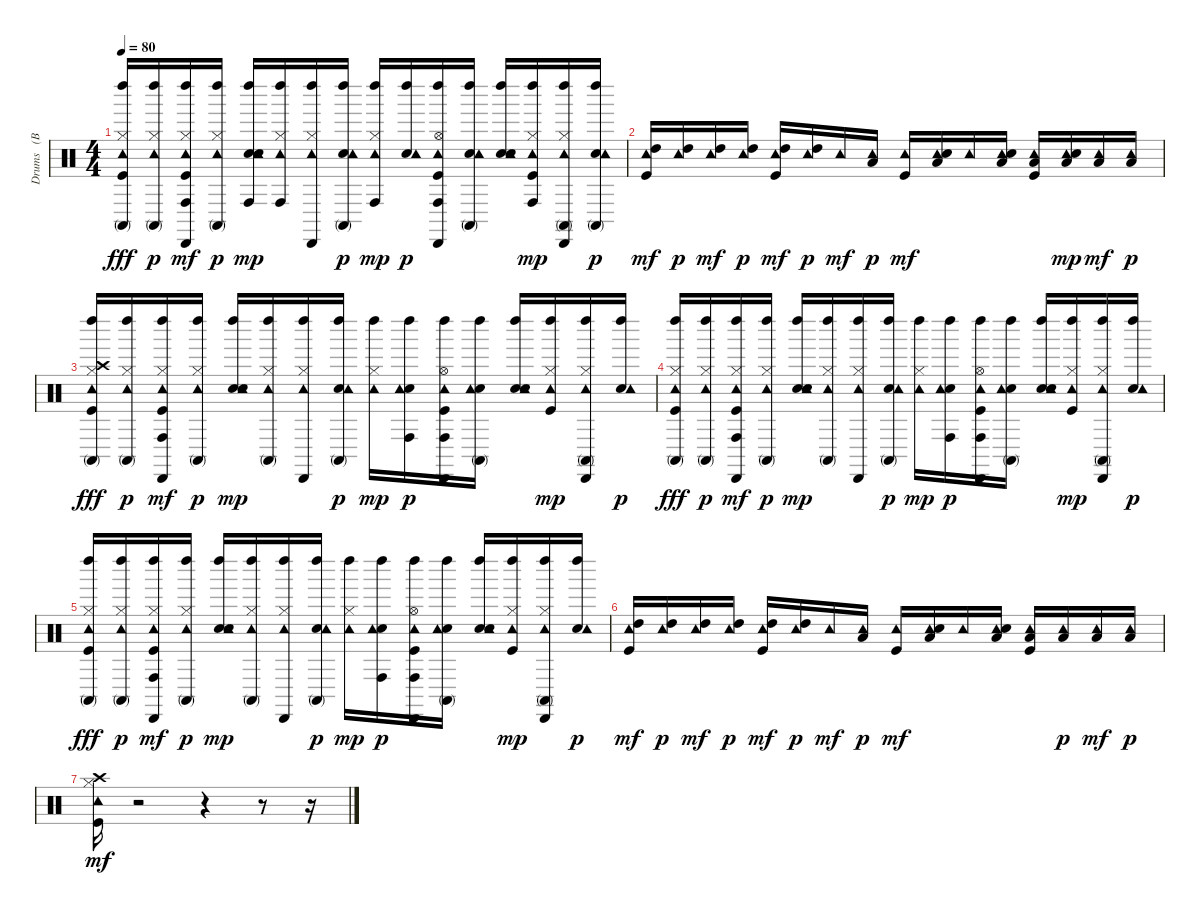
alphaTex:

\track ("Drums   (BB)" "Drums   (B") {instrument percussion}
\staff {score}
\articulation defaults
\ts (4 4)
\tempo 80
\clef neutral
\ks c
("Kick (hit)" "Hi-Hat (closed)" "Conga high (mute)" "Tambourine (hit)" "Left Maraca (hit)").16{dy fff} ("Hi-Hat (closed)" "Conga high (mute)" "Tambourine (hit)" "Left Maraca (hit)").16{dy p} ("Kick (hit)" "Hi-Hat (closed)" "Conga high (hit)" "Tambourine (hit)" "Left Maraca (hit)" "Cabasa (hit)").16{dy mf} ("Hi-Hat (closed)" "Conga high (mute)" "Tambourine (hit)" "Left Maraca (hit)").16{dy p} ("Snare (hit) 2" "Conga high (hit)" "Tambourine (hit)" "Hand Clap (hit)" "Left Maraca (hit)").16{dy mp} ("Hi-Hat (closed)" "Conga high (hit)" "Tambourine (hit)" "Left Maraca (hit)").16 ("Hi-Hat (closed)" "Tambourine (hit)" "Left Maraca (hit)" "Cabasa (hit)").16 ("Snare (hit) 2" "Conga high (mute)" "Tambourine (hit)" "Left Maraca (hit)").16{dy p} ("Hi-Hat (closed)" "Conga high (hit)" "Tambourine (hit)" "Left Maraca (hit)").16{dy mp} ("Snare (hit) 2" "Tambourine (hit)" "Left Maraca (hit)").16{dy p} ("Kick (hit)" "Hi-Hat (open)" "Conga high (hit)" "Tambourine (hit)" "Left Maraca (hit)" "Cabasa (hit)").16 ("Snare (hit) 2" "Conga high (mute)" "Tambourine (hit)" "Left Maraca (hit)").16 ("Snare (hit) 2" "Tambourine (hit)" "Hand Clap (hit)" "Left Maraca (hit)").16 ("Kick (hit)" "Hi-Hat (closed)" "Conga high (hit)" "Tambourine (hit)" "Left Maraca (hit)").16{dy mp} ("Hi-Hat (closed)" "Conga high (mute)" "Tambourine (hit)" "Left Maraca (hit)" "Cabasa (hit)").16 ("Snare (hit) 2" "Conga high (mute)" "Tambourine (hit)" "Left Maraca (hit)").16{dy p} |
("Kick (hit)" "High Tom (hit)" "Tambourine (hit)").16{dy mf} ("High Tom (hit)" "Tambourine (hit)").16{dy p} ("High Tom (hit)" "Tambourine (hit)").16{dy mf} ("High Tom (hit)" "Tambourine (hit)").16{dy p} ("Kick (hit)" "High Tom (hit)" "Tambourine (hit)").16{dy mf} ("High Tom (hit)" "Tambourine (hit)").16{dy p} "Tambourine (hit)".16{dy mf} ("Low Tom (hit)" "Tambourine (hit)").16{dy p} ("Kick (hit)" "Tambourine (hit)").16{dy mf} ("Low Tom (hit)" "Tambourine (hit)" "Hand Clap (hit)").16 "Tambourine (hit)".16 ("Low Floor Tom (hit)" "Tambourine (hit)" "Hand Clap (hit)").16 ("Kick (hit)" "Low Floor Tom (hit)" "Tambourine (hit)").16 ("Low Floor Tom (hit)" "Tambourine (hit)" "Hand Clap (hit)").16{dy mp} ("Low Floor Tom (hit)" "Tambourine (hit)").16{dy mf} ("Low Floor Tom (hit)" "Tambourine (hit)").16{dy p} |
("Kick (hit)" "Hi-Hat (closed)" "Crash high (hit)" "Conga high (mute)" "Tambourine (hit)" "Left Maraca (hit)").16{dy fff} ("Hi-Hat (closed)" "Conga high (mute)" "Tambourine (hit)" "Left Maraca (hit)").16{dy p} ("Kick (hit)" "Hi-Hat (closed)" "Conga high (hit)" "Tambourine (hit)" "Left Maraca (hit)" "Cabasa (hit)").16{dy mf} ("Hi-Hat (closed)" "Conga high (mute)" "Tambourine (hit)" "Left Maraca (hit)").16{dy p} ("Snare (hit) 2" "Tambourine (hit)" "Hand Clap (hit)" "Left Maraca (hit)").16{dy mp} ("Hi-Hat (closed)" "Conga high (mute)" "Tambourine (hit)" "Left Maraca (hit)").16 ("Hi-Hat (closed)" "Tambourine (hit)" "Left Maraca (hit)" "Cabasa (hit)").16 ("Snare (hit) 2" "Conga high (mute)" "Tambourine (hit)" "Left Maraca (hit)").16{dy p} ("Hi-Hat (closed)" "Tambourine (hit)" "Left Maraca (hit)").16{dy mp} ("Snare (hit) 2" "Conga high (hit)" "Tambourine (hit)" "Left Maraca (hit)").16{dy p} ("Kick (hit)" "Hi-Hat (open)" "Conga high (hit)" "Tambourine (hit)" "Left Maraca (hit)" "Cabasa (hit)").16 ("Snare (hit) 2" "Conga high (mute)" "Tambourine (hit)" "Left Maraca (hit)").16 ("Snare (hit) 2" "Tambourine (hit)" "Hand Clap (hit)" "Left Maraca (hit)").16 ("Kick (hit)" "Hi-Hat (closed)" "Tambourine (hit)" "Left Maraca (hit)").16{dy mp} ("Hi-Hat (closed)" "Conga high (mute)" "Tambourine (hit)" "Left Maraca (hit)" "Cabasa (hit)").16 ("Snare (hit) 2" "Tambourine (hit)" "Left Maraca (hit)").16{dy p} |
("Kick (hit)" "Hi-Hat (closed)" "Conga high (mute)" "Tambourine (hit)" "Left Maraca (hit)").16{dy fff} ("Hi-Hat (closed)" "Conga high (mute)" "Tambourine (hit)" "Left Maraca (hit)").16{dy p} ("Kick (hit)" "Hi-Hat (closed)" "Conga high (hit)" "Tambourine (hit)" "Left Maraca (hit)" "Cabasa (hit)").16{dy mf} ("Hi-Hat (closed)" "Conga high (mute)" "Tambourine (hit)" "Left Maraca (hit)").16{dy p} ("Snare (hit) 2" "Tambourine (hit)" "Hand Clap (hit)" "Left Maraca (hit)").16{dy mp} ("Hi-Hat (closed)" "Conga high (mute)" "Tambourine (hit)" "Left Maraca (hit)").16 ("Hi-Hat (closed)" "Tambourine (hit)" "Left Maraca (hit)" "Cabasa (hit)").16 ("Snare (hit) 2" "Conga high (mute)" "Tambourine (hit)" "Left Maraca (hit)").16{dy p} ("Hi-Hat (closed)" "Tambourine (hit)" "Left Maraca (hit)").16{dy mp} ("Snare (hit) 2" "Conga high (hit)" "Tambourine (hit)" "Left Maraca (hit)").16{dy p} ("Kick (hit)" "Hi-Hat (open)" "Conga high (hit)" "Tambourine (hit)" "Left Maraca (hit)" "Cabasa (hit)").16 ("Snare (hit) 2" "Conga high (mute)" "Tambourine (hit)" "Left Maraca (hit)").16 ("Snare (hit) 2" "Tambourine (hit)" "Hand Clap (hit)" "Left Maraca (hit)").16 ("Kick (hit)" "Hi-Hat (closed)" "Tambourine (hit)" "Left Maraca (hit)").16{dy mp} ("Hi-Hat (closed)" "Conga high (mute)" "Tambourine (hit)" "Left Maraca (hit)" "Cabasa (hit)").16 ("Snare (hit) 2" "Tambourine (hit)" "Left Maraca (hit)").16{dy p} |
("Kick (hit)" "Hi-Hat (closed)" "Conga high (mute)" "Tambourine (hit)" "Left Maraca (hit)").16{dy fff} ("Hi-Hat (closed)" "Conga high (mute)" "Tambourine (hit)" "Left Maraca (hit)").16{dy p} ("Kick (hit)" "Hi-Hat (closed)" "Conga high (hit)" "Tambourine (hit)" "Left Maraca (hit)" "Cabasa (hit)").16{dy mf} ("Hi-Hat (closed)" "Conga high (mute)" "Tambourine (hit)" "Left Maraca (hit)").16{dy p} ("Snare (hit) 2" "Tambourine (hit)" "Hand Clap (hit)" "Left Maraca (hit)").16{dy mp} ("Hi-Hat (closed)" "Conga high (mute)" "Tambourine (hit)" "Left Maraca (hit)").16 ("Hi-Hat (closed)" "Tambourine (hit)" "Left Maraca (hit)" "Cabasa (hit)").16 ("Snare (hit) 2" "Conga high (mute)" "Tambourine (hit)" "Left Maraca (hit)").16{dy p} ("Hi-Hat (closed)" "Tambourine (hit)" "Left Maraca (hit)").16{dy mp} ("Snare (hit) 2" "Conga high (hit)" "Tambourine (hit)" "Left Maraca (hit)").16{dy p} ("Kick (hit)" "Hi-Hat (open)" "Conga high (hit)" "Tambourine (hit)" "Left Maraca (hit)" "Cabasa (hit)").16 ("Snare (hit) 2" "Conga high (mute)" "Tambourine (hit)" "Left Maraca (hit)").16 ("Snare (hit) 2" "Tambourine (hit)" "Hand Clap (hit)" "Left Maraca (hit)").16 ("Kick (hit)" "Hi-Hat (closed)" "Tambourine (hit)" "Left Maraca (hit)").16{dy mp} ("Hi-Hat (closed)" "Conga high (mute)" "Tambourine (hit)" "Left Maraca (hit)" "Cabasa (hit)").16 ("Snare (hit) 2" "Tambourine (hit)" "Left Maraca (hit)").16{dy p} |
("Kick (hit)" "High Tom (hit)" "Tambourine (hit)").16{dy mf} ("High Tom (hit)" "Tambourine (hit)").16{dy p} ("High Tom (hit)" "Tambourine (hit)").16{dy mf} ("High Tom (hit)" "Tambourine (hit)").16{dy p} ("Kick (hit)" "High Tom (hit)" "Tambourine (hit)").16{dy mf} ("High Tom (hit)" "Tambourine (hit)").16{dy p} "Tambourine (hit)".16{dy mf} ("Low Tom (hit)" "Tambourine (hit)").16{dy p} ("Kick (hit)" "Tambourine (hit)").16{dy mf} ("Low Tom (hit)" "Tambourine (hit)" "Hand Clap (hit)").16 "Tambourine (hit)".16 ("Low Floor Tom (hit)" "Tambourine (hit)" "Hand Clap (hit)").16 ("Kick (hit)" "Low Floor Tom (hit)" "Tambourine (hit)").16 ("Low Floor Tom (hit)" "Tambourine (hit)").16{dy p} ("Low Floor Tom (hit)" "Tambourine (hit)").16{dy mf} ("Low Floor Tom (hit)" "Tambourine (hit)").16{dy p} |
("Kick (hit)" "Hi-Hat (closed)" "Crash high (hit)" "Tambourine (hit)").16{dy mf} r.2 r.4 r.8 r.16
